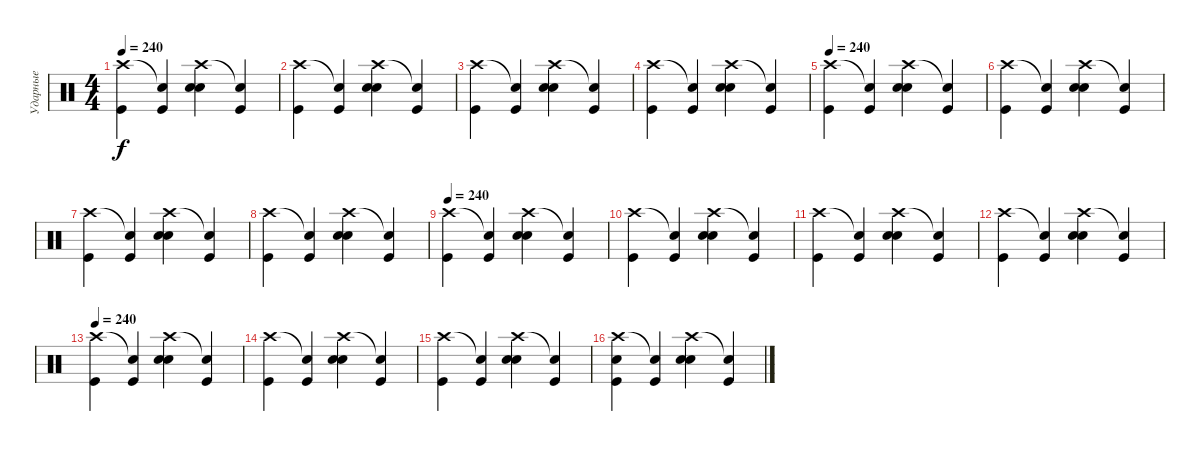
\track ("Ударные" "Ударные") {instrument percussion}
\staff {score}
\articulation defaults
\ts (4 4)
\tempo 240
\clef neutral
\ks c
("Crash high (hit)" "Kick (hit)").4{dy f} ("Snare (hit)"{t} "Kick (hit)").4 ("Crash high (hit)" "Electric Snare (hit)" "Snare (hit) 2").4 ("Snare (hit)"{t} "Kick (hit)").4 |
("Crash high (hit)" "Kick (hit)").4 ("Snare (hit)"{t} "Kick (hit)").4 ("Crash high (hit)" "Electric Snare (hit)" "Snare (hit) 2").4 ("Snare (hit)"{t} "Kick (hit)").4 |
("Crash high (hit)" "Kick (hit)").4 ("Snare (hit)"{t} "Kick (hit)").4 ("Crash high (hit)" "Electric Snare (hit)" "Snare (hit) 2").4 ("Snare (hit)"{t} "Kick (hit)").4 |
("Crash high (hit)" "Kick (hit)").4 ("Snare (hit)"{t} "Kick (hit)").4 ("Crash high (hit)" "Electric Snare (hit)" "Snare (hit) 2").4 ("Snare (hit)"{t} "Kick (hit)").4 |
\tempo 240
("Crash high (hit)" "Kick (hit)").4 ("Snare (hit)"{t} "Kick (hit)").4 ("Crash high (hit)" "Electric Snare (hit)" "Snare (hit) 2").4 ("Snare (hit)"{t} "Kick (hit)").4 |
("Crash high (hit)" "Kick (hit)").4 ("Snare (hit)"{t} "Kick (hit)").4 ("Crash high (hit)" "Electric Snare (hit)" "Snare (hit) 2").4 ("Snare (hit)"{t} "Kick (hit)").4 |
("Crash high (hit)" "Kick (hit)").4 ("Snare (hit)"{t} "Kick (hit)").4 ("Crash high (hit)" "Electric Snare (hit)" "Snare (hit) 2").4 ("Snare (hit)"{t} "Kick (hit)").4 |
("Crash high (hit)" "Kick (hit)").4 ("Snare (hit)"{t} "Kick (hit)").4 ("Crash high (hit)" "Electric Snare (hit)" "Snare (hit) 2").4 ("Snare (hit)"{t} "Kick (hit)").4 |
\tempo 240
("Crash high (hit)" "Kick (hit)").4 ("Snare (hit)"{t} "Kick (hit)").4 ("Crash high (hit)" "Electric Snare (hit)" "Snare (hit) 2").4 ("Snare (hit)"{t} "Kick (hit)").4 |
("Crash high (hit)" "Kick (hit)").4 ("Snare (hit)"{t} "Kick (hit)").4 ("Crash high (hit)" "Electric Snare (hit)" "Snare (hit) 2").4 ("Snare (hit)"{t} "Kick (hit)").4 |
("Crash high (hit)" "Kick (hit)").4 ("Snare (hit)"{t} "Kick (hit)").4 ("Crash high (hit)" "Electric Snare (hit)" "Snare (hit) 2").4 ("Snare (hit)"{t} "Kick (hit)").4 |
("Crash high (hit)" "Kick (hit)").4 ("Snare (hit)"{t} "Kick (hit)").4 ("Crash high (hit)" "Electric Snare (hit)" "Snare (hit) 2").4 ("Snare (hit)"{t} "Kick (hit)").4 |
\tempo 240
("Crash high (hit)" "Kick (hit)").4 ("Snare (hit)"{t} "Kick (hit)").4 ("Crash high (hit)" "Electric Snare (hit)" "Snare (hit) 2").4 ("Snare (hit)"{t} "Kick (hit)").4 |
("Crash high (hit)" "Kick (hit)").4 ("Snare (hit)"{t} "Kick (hit)").4 ("Crash high (hit)" "Electric Snare (hit)" "Snare (hit) 2").4 ("Snare (hit)"{t} "Kick (hit)").4 |
("Crash high (hit)" "Kick (hit)").4 ("Snare (hit)"{t} "Kick (hit)").4 ("Crash high (hit)" "Electric Snare (hit)" "Snare (hit) 2").4 ("Snare (hit)"{t} "Kick (hit)").4 |
("Crash high (hit)" "Electric Snare (hit)" "Kick (hit)").4 ("Snare (hit)"{t} "Kick (hit)").4 ("Crash high (hit)" "Electric Snare (hit)" "Snare (hit) 2").4 ("Snare (hit)"{t} "Kick (hit)").4
